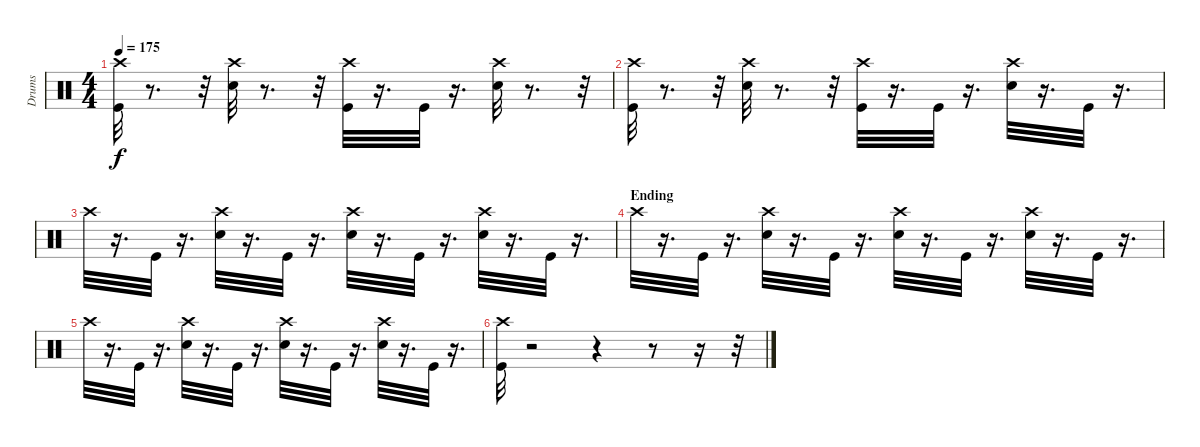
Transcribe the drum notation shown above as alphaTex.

\track ("Drums" "Drums") {instrument percussion}
\staff {score}
\articulation defaults
\ts (4 4)
\tempo 175
\clef neutral
\ks c
("Crash high (hit)" "Kick (hit)").32{dy f} r.8{d} r.32 ("Crash high (hit)" "Electric Snare (hit)").32 r.8{d} r.32 ("Crash high (hit)" "Kick (hit)").32 r.16{d} "Kick (hit)".32 r.16{d} ("Crash high (hit)" "Electric Snare (hit)").32 r.8{d} r.32 |
("Crash high (hit)" "Kick (hit)").32 r.8{d} r.32 ("Crash high (hit)" "Electric Snare (hit)").32 r.8{d} r.32 ("Crash high (hit)" "Kick (hit)").32 r.16{d} "Kick (hit)".32 r.16{d} ("Crash high (hit)" "Electric Snare (hit)").32 r.16{d} "Kick (hit)".32 r.16{d} |
"Crash high (hit)".32 r.16{d} "Kick (hit)".32 r.16{d} ("Crash high (hit)" "Electric Snare (hit)").32 r.16{d} "Kick (hit)".32 r.16{d} ("Crash high (hit)" "Electric Snare (hit)").32 r.16{d} "Kick (hit)".32 r.16{d} ("Crash high (hit)" "Electric Snare (hit)").32 r.16{d} "Kick (hit)".32 r.16{d} |
\section ("" "Ending")
"Crash high (hit)".32 r.16{d} "Kick (hit)".32 r.16{d} ("Crash high (hit)" "Electric Snare (hit)").32 r.16{d} "Kick (hit)".32 r.16{d} ("Crash high (hit)" "Electric Snare (hit)").32 r.16{d} "Kick (hit)".32 r.16{d} ("Crash high (hit)" "Electric Snare (hit)").32 r.16{d} "Kick (hit)".32 r.16{d} |
"Crash high (hit)".32 r.16{d} "Kick (hit)".32 r.16{d} ("Crash high (hit)" "Electric Snare (hit)").32 r.16{d} "Kick (hit)".32 r.16{d} ("Crash high (hit)" "Electric Snare (hit)").32 r.16{d} "Kick (hit)".32 r.16{d} ("Crash high (hit)" "Electric Snare (hit)").32 r.16{d} "Kick (hit)".32 r.16{d} |
("Crash high (hit)" "Kick (hit)").32 r.2 r.4 r.8 r.16 r.32
